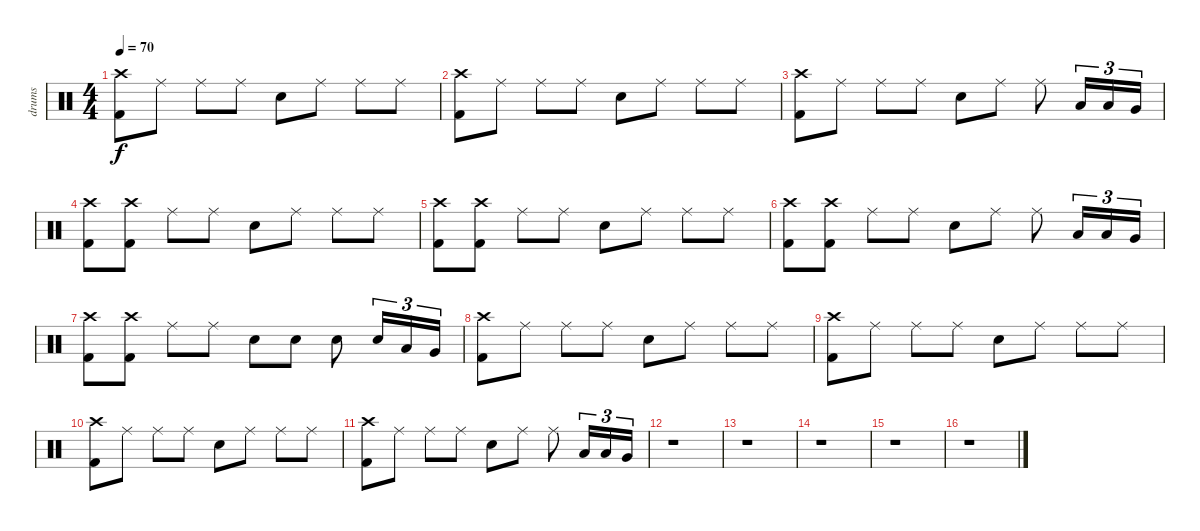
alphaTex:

\track ("drums" "drums") {instrument percussion}
\staff {score}
\articulation defaults
\ts (4 4)
\tempo 70
\clef neutral
\ks c
("Crash high (hit)" "Kick (hit) 2").8{dy f} "Ride (middle)".8 "Ride (middle)".8 "Ride (middle)".8 "Snare (hit) 2".8 "Ride (middle)".8 "Ride (middle)".8 "Ride (middle)".8 |
("Crash high (hit)" "Kick (hit) 2").8 "Ride (middle)".8 "Ride (middle)".8 "Ride (middle)".8 "Snare (hit) 2".8 "Ride (middle)".8 "Ride (middle)".8 "Ride (middle)".8 |
("Crash high (hit)" "Kick (hit) 2").8 "Ride (middle)".8 "Ride (middle)".8 "Ride (middle)".8 "Snare (hit) 2".8 "Ride (middle)".8 "Ride (middle)".8 "Low Tom (hit)".16{tu (3 2)} "Low Tom (hit)".16{tu (3 2)} "Very Low Tom (hit)".16{tu (3 2)} |
("Crash high (hit)" "Kick (hit) 2").8 ("Crash high (hit)" "Kick (hit) 2").8 "Ride (middle)".8 "Ride (middle)".8 "Snare (hit) 2".8 "Ride (middle)".8 "Ride (middle)".8 "Ride (middle)".8 |
("Crash high (hit)" "Kick (hit) 2").8 ("Crash high (hit)" "Kick (hit) 2").8 "Ride (middle)".8 "Ride (middle)".8 "Snare (hit) 2".8 "Ride (middle)".8 "Ride (middle)".8 "Ride (middle)".8 |
("Crash high (hit)" "Kick (hit) 2").8 ("Crash high (hit)" "Kick (hit) 2").8 "Ride (middle)".8 "Ride (middle)".8 "Snare (hit) 2".8 "Ride (middle)".8 "Ride (middle)".8 "Low Tom (hit)".16{tu (3 2)} "Low Tom (hit)".16{tu (3 2)} "Very Low Tom (hit)".16{tu (3 2)} |
("Crash high (hit)" "Kick (hit) 2").8 ("Crash high (hit)" "Kick (hit) 2").8 "Ride (middle)".8 "Ride (middle)".8 "Snare (hit) 2".8 "Snare (hit) 2".8 "Snare (hit) 2".8 "Snare (hit) 2".16{tu (3 2)} "Low Tom (hit)".16{tu (3 2)} "Very Low Tom (hit)".16{tu (3 2)} |
("Crash high (hit)" "Kick (hit) 2").8 "Ride (middle)".8 "Ride (middle)".8 "Ride (middle)".8 "Snare (hit) 2".8 "Ride (middle)".8 "Ride (middle)".8 "Ride (middle)".8 |
("Crash high (hit)" "Kick (hit) 2").8 "Ride (middle)".8 "Ride (middle)".8 "Ride (middle)".8 "Snare (hit) 2".8 "Ride (middle)".8 "Ride (middle)".8 "Ride (middle)".8 |
("Crash high (hit)" "Kick (hit) 2").8 "Ride (middle)".8 "Ride (middle)".8 "Ride (middle)".8 "Snare (hit) 2".8 "Ride (middle)".8 "Ride (middle)".8 "Ride (middle)".8 |
("Crash high (hit)" "Kick (hit) 2").8 "Ride (middle)".8 "Ride (middle)".8 "Ride (middle)".8 "Snare (hit) 2".8 "Ride (middle)".8 "Ride (middle)".8 "Low Tom (hit)".16{tu (3 2)} "Low Tom (hit)".16{tu (3 2)} "Very Low Tom (hit)".16{tu (3 2)} |
r.1 |
r.1 |
r.1 |
r.1 |
r.1
